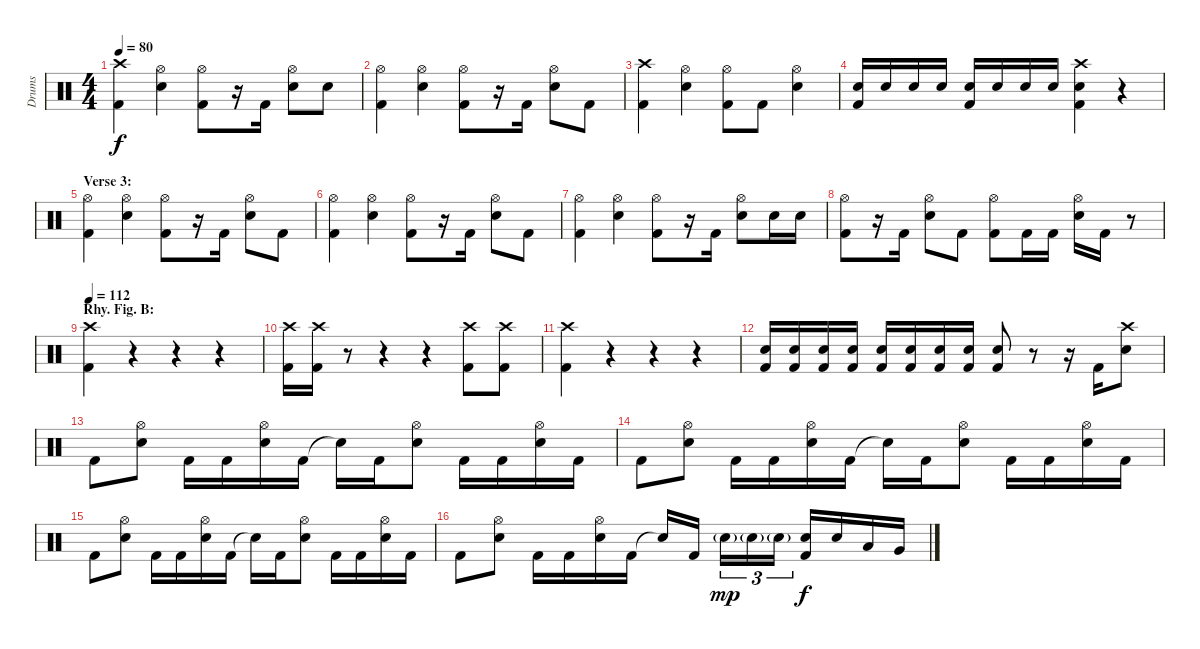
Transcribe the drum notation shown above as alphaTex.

\track ("Drums" "Drums") {instrument percussion}
\staff {score}
\articulation defaults
\ts (4 4)
\tempo 80
\clef neutral
\ks c
("Crash high (hit)" "Kick (hit) 2").4{dy f} ("Hi-Hat (open)" "Electric Snare (hit)").4 ("Hi-Hat (open)" "Kick (hit) 2").8 r.16 "Kick (hit) 2".16 ("Hi-Hat (open)" "Electric Snare (hit)").8 "Electric Snare (hit)".8 |
("Hi-Hat (open)" "Kick (hit) 2").4 ("Hi-Hat (open)" "Electric Snare (hit)").4 ("Hi-Hat (open)" "Kick (hit) 2").8 r.16 "Kick (hit) 2".16 ("Hi-Hat (open)" "Electric Snare (hit)").8 "Kick (hit) 2".8 |
("Crash high (hit)" "Kick (hit) 2").4 ("Hi-Hat (open)" "Electric Snare (hit)").4 ("Hi-Hat (open)" "Kick (hit) 2").8 "Kick (hit) 2".8 ("Hi-Hat (open)" "Electric Snare (hit)").4 |
("Electric Snare (hit)" "Kick (hit) 2").16 "Electric Snare (hit)".16 "Electric Snare (hit)".16 "Electric Snare (hit)".16 ("Electric Snare (hit)" "Kick (hit) 2").16 "Electric Snare (hit)".16 "Electric Snare (hit)".16 "Electric Snare (hit)".16 ("Crash high (hit)" "Electric Snare (hit)" "Kick (hit) 2").4 r.4 |
\section ("" "Verse 3:")
("Hi-Hat (open)" "Kick (hit) 2").4 ("Hi-Hat (open)" "Electric Snare (hit)").4 ("Hi-Hat (open)" "Kick (hit) 2").8 r.16 "Kick (hit) 2".16 ("Hi-Hat (open)" "Electric Snare (hit)").8 "Kick (hit) 2".8 |
("Hi-Hat (open)" "Kick (hit) 2").4 ("Hi-Hat (open)" "Electric Snare (hit)").4 ("Hi-Hat (open)" "Kick (hit) 2").8 r.16 "Kick (hit) 2".16 ("Hi-Hat (open)" "Electric Snare (hit)").8 "Kick (hit) 2".8 |
("Hi-Hat (open)" "Kick (hit) 2").4 ("Hi-Hat (open)" "Electric Snare (hit)").4 ("Hi-Hat (open)" "Kick (hit) 2").8 r.16 "Kick (hit) 2".16 ("Hi-Hat (open)" "Electric Snare (hit)").8 "Electric Snare (hit)".16 "Electric Snare (hit)".16 |
("Hi-Hat (open)" "Kick (hit) 2").8 r.16 "Kick (hit) 2".16 ("Hi-Hat (open)" "Electric Snare (hit)").8 "Kick (hit) 2".8 ("Hi-Hat (open)" "Kick (hit) 2").8 "Kick (hit) 2".16 "Kick (hit) 2".16 ("Hi-Hat (open)" "Electric Snare (hit)").16 "Kick (hit) 2".16 r.8 |
\section ("" "Rhy. Fig. B:")
\tempo 112
("Crash high (hit)" "Kick (hit) 2").4 r.4 r.4 r.4 |
("Crash high (hit)" "Kick (hit) 2").16 ("Crash high (hit)" "Kick (hit) 2").16 r.8 r.4 r.4 ("Crash high (hit)" "Kick (hit) 2").8 ("Crash high (hit)" "Kick (hit) 2").8 |
("Crash high (hit)" "Kick (hit) 2").4 r.4 r.4 r.4 |
("Electric Snare (hit)" "Kick (hit) 2").16 ("Electric Snare (hit)" "Kick (hit) 2").16 ("Electric Snare (hit)" "Kick (hit) 2").16 ("Electric Snare (hit)" "Kick (hit) 2").16 ("Electric Snare (hit)" "Kick (hit) 2").16 ("Electric Snare (hit)" "Kick (hit) 2").16 ("Electric Snare (hit)" "Kick (hit) 2").16 ("Electric Snare (hit)" "Kick (hit) 2").16 ("Electric Snare (hit)" "Kick (hit) 2").8 r.8 r.16 "Kick (hit) 2".16 ("Crash high (hit)" "Electric Snare (hit)").8 |
"Kick (hit) 2".8 ("Hi-Hat (open)" "Electric Snare (hit)").8 "Kick (hit) 2".16 "Kick (hit) 2".16 ("Hi-Hat (open)" "Electric Snare (hit)").16 "Kick (hit) 2".16 "Snare (hit)"{t}.16 "Kick (hit) 2".16 ("Hi-Hat (open)" "Electric Snare (hit)").8 "Kick (hit) 2".16 "Kick (hit) 2".16 ("Hi-Hat (open)" "Electric Snare (hit)").16 "Kick (hit) 2".16 |
"Kick (hit) 2".8 ("Hi-Hat (open)" "Electric Snare (hit)").8 "Kick (hit) 2".16 "Kick (hit) 2".16 ("Hi-Hat (open)" "Electric Snare (hit)").16 "Kick (hit) 2".16 "Snare (hit)"{t}.16 "Kick (hit) 2".16 ("Hi-Hat (open)" "Electric Snare (hit)").8 "Kick (hit) 2".16 "Kick (hit) 2".16 ("Hi-Hat (open)" "Electric Snare (hit)").16 "Kick (hit) 2".16 |
"Kick (hit) 2".8 ("Hi-Hat (open)" "Electric Snare (hit)").8 "Kick (hit) 2".16 "Kick (hit) 2".16 ("Hi-Hat (open)" "Electric Snare (hit)").16 "Kick (hit) 2".16 "Snare (hit)"{t}.16 "Kick (hit) 2".16 ("Hi-Hat (open)" "Electric Snare (hit)").8 "Kick (hit) 2".16 "Kick (hit) 2".16 ("Hi-Hat (open)" "Electric Snare (hit)").16 "Kick (hit) 2".16 |
"Kick (hit) 2".8 ("Hi-Hat (open)" "Electric Snare (hit)").8 "Kick (hit) 2".16 "Kick (hit) 2".16 ("Hi-Hat (open)" "Electric Snare (hit)").16 "Kick (hit) 2".16 "Snare (hit)"{t}.16 "Kick (hit) 2".16 "Electric Snare (hit)"{g}.16{tu (3 2) dy mp} "Electric Snare (hit)"{g}.16{tu (3 2)} "Electric Snare (hit)"{g}.16{tu (3 2)} ("Electric Snare (hit)" "Kick (hit) 2").16{dy f} "Electric Snare (hit)".16 "Low Tom (hit)".16 "Very Low Tom (hit)".16
